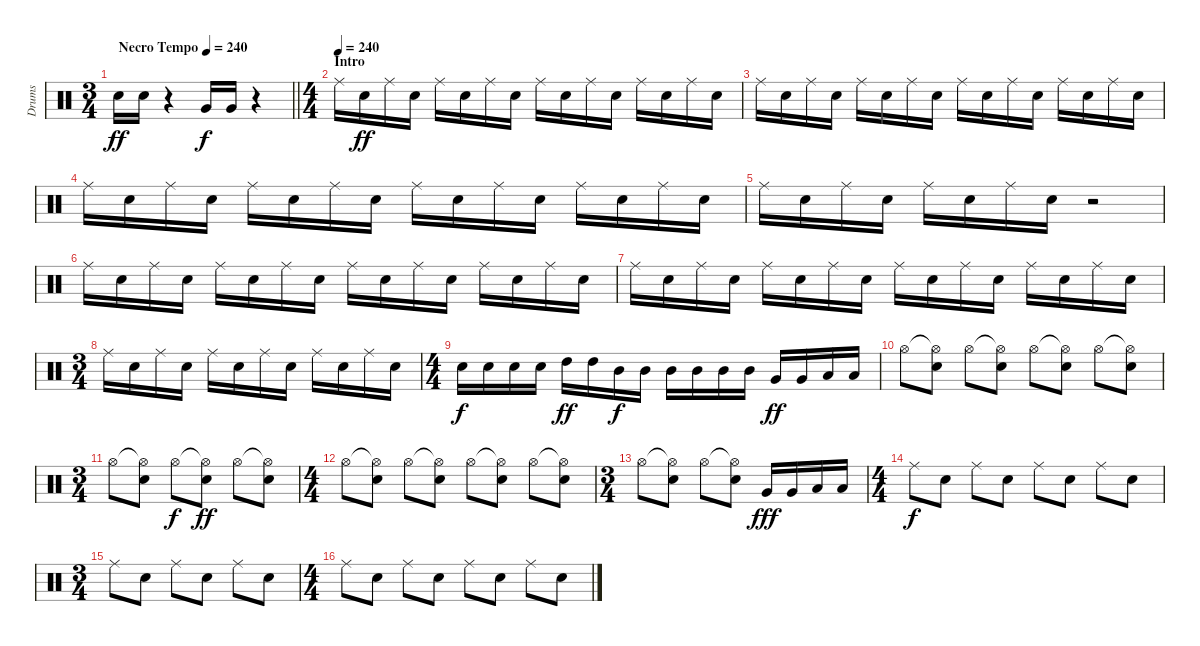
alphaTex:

\track ("Drums" "Drums") {instrument percussion}
\staff {score}
\articulation defaults
\ts (3 4)
\tempo (240 "Necro Tempo")
\clef neutral
\barLineRight lightlight
\ks c "Electric Snare (hit)".16{dy ff} "Electric Snare (hit)".16
r.4 "Very Low Tom (hit)".16{dy f} "Very Low Tom (hit)".16 r.4 |
\ts (4 4)
\section ("" "Intro")
\tempo (240)
"Ride (middle)".16{volume 13} "Electric Snare (hit)".16{dy ff} "Ride (middle)".16 "Electric Snare (hit)".16 "Ride (middle)".16 "Electric Snare (hit)".16 "Ride (middle)".16 "Electric Snare (hit)".16 "Ride (middle)".16 "Electric Snare (hit)".16 "Ride (middle)".16 "Electric Snare (hit)".16 "Ride (middle)".16 "Electric Snare (hit)".16 "Ride (middle)".16 "Electric Snare (hit)".16 |
"Ride (middle)".16 "Electric Snare (hit)".16 "Ride (middle)".16 "Electric Snare (hit)".16 "Ride (middle)".16 "Electric Snare (hit)".16 "Ride (middle)".16 "Electric Snare (hit)".16 "Ride (middle)".16 "Electric Snare (hit)".16 "Ride (middle)".16 "Electric Snare (hit)".16 "Ride (middle)".16 "Electric Snare (hit)".16 "Ride (middle)".16 "Electric Snare (hit)".16 |
"Ride (middle)".16 "Electric Snare (hit)".16 "Ride (middle)".16 "Electric Snare (hit)".16 "Ride (middle)".16 "Electric Snare (hit)".16 "Ride (middle)".16 "Electric Snare (hit)".16 "Ride (middle)".16 "Electric Snare (hit)".16 "Ride (middle)".16 "Electric Snare (hit)".16 "Ride (middle)".16 "Electric Snare (hit)".16 "Ride (middle)".16 "Electric Snare (hit)".16 |
"Ride (middle)".16 "Electric Snare (hit)".16 "Ride (middle)".16 "Electric Snare (hit)".16 "Ride (middle)".16 "Electric Snare (hit)".16 "Ride (middle)".16 "Electric Snare (hit)".16 r.2 |
"Ride (middle)".16 "Electric Snare (hit)".16 "Ride (middle)".16 "Electric Snare (hit)".16 "Ride (middle)".16 "Electric Snare (hit)".16 "Ride (middle)".16 "Electric Snare (hit)".16 "Ride (middle)".16 "Electric Snare (hit)".16 "Ride (middle)".16 "Electric Snare (hit)".16 "Ride (middle)".16 "Electric Snare (hit)".16 "Ride (middle)".16 "Electric Snare (hit)".16 |
"Ride (middle)".16 "Electric Snare (hit)".16 "Ride (middle)".16 "Electric Snare (hit)".16 "Ride (middle)".16 "Electric Snare (hit)".16 "Ride (middle)".16 "Electric Snare (hit)".16 "Ride (middle)".16 "Electric Snare (hit)".16 "Ride (middle)".16 "Electric Snare (hit)".16 "Ride (middle)".16 "Electric Snare (hit)".16 "Ride (middle)".16 "Electric Snare (hit)".16 |
\ts (3 4)
"Ride (middle)".16 "Electric Snare (hit)".16 "Ride (middle)".16 "Electric Snare (hit)".16 "Ride (middle)".16 "Electric Snare (hit)".16 "Ride (middle)".16 "Electric Snare (hit)".16 "Ride (middle)".16 "Electric Snare (hit)".16 "Ride (middle)".16 "Electric Snare (hit)".16 |
\ts (4 4)
"Electric Snare (hit)".16{dy f} "Electric Snare (hit)".16 "Electric Snare (hit)".16 "Electric Snare (hit)".16 "High Tom (hit)".16{dy ff} "High Tom (hit)".16 "Mid Tom (hit)".16{dy f} "Mid Tom (hit)".16 "Mid Tom (hit)".16 "Mid Tom (hit)".16 "Mid Tom (hit)".16 "Mid Tom (hit)".16 "Very Low Tom (hit)".16{dy ff} "Very Low Tom (hit)".16 "Low Floor Tom (hit)".16 "Low Floor Tom (hit)".16 |
"Hi-Hat (open)".8{volume 12} ("Hi-Hat (open)"{t} "Electric Snare (hit)").8 "Hi-Hat (open)".8 ("Hi-Hat (open)"{t} "Electric Snare (hit)").8 "Hi-Hat (open)".8 ("Hi-Hat (open)"{t} "Electric Snare (hit)").8 "Hi-Hat (open)".8 ("Hi-Hat (open)"{t} "Electric Snare (hit)").8 |
\ts (3 4)
"Hi-Hat (open)".8 ("Hi-Hat (open)"{t} "Electric Snare (hit)").8 "Hi-Hat (open)".8{dy f} ("Hi-Hat (open)"{t} "Electric Snare (hit)").8{dy ff} "Hi-Hat (open)".8 ("Hi-Hat (open)"{t} "Electric Snare (hit)").8 |
\ts (4 4)
"Hi-Hat (open)".8 ("Hi-Hat (open)"{t} "Electric Snare (hit)").8 "Hi-Hat (open)".8 ("Hi-Hat (open)"{t} "Electric Snare (hit)").8 "Hi-Hat (open)".8 ("Hi-Hat (open)"{t} "Electric Snare (hit)").8 "Hi-Hat (open)".8 ("Hi-Hat (open)"{t} "Electric Snare (hit)").8 |
\ts (3 4)
"Hi-Hat (open)".8 ("Hi-Hat (open)"{t} "Electric Snare (hit)").8 "Hi-Hat (open)".8 ("Hi-Hat (open)"{t} "Electric Snare (hit)").8 "Very Low Tom (hit)".16{dy fff} "Very Low Tom (hit)".16 "Low Floor Tom (hit)".16 "Low Floor Tom (hit)".16 |
\ts (4 4)
"Ride (middle)".8{dy f} "Electric Snare (hit)".8 "Ride (middle)".8 "Electric Snare (hit)".8 "Ride (middle)".8 "Electric Snare (hit)".8 "Ride (middle)".8 "Electric Snare (hit)".8 |
\ts (3 4)
"Ride (middle)".8 "Electric Snare (hit)".8 "Ride (middle)".8 "Electric Snare (hit)".8 "Ride (middle)".8 "Electric Snare (hit)".8 |
\ts (4 4)
"Ride (middle)".8 "Electric Snare (hit)".8 "Ride (middle)".8 "Electric Snare (hit)".8 "Ride (middle)".8 "Electric Snare (hit)".8 "Ride (middle)".8 "Electric Snare (hit)".8
